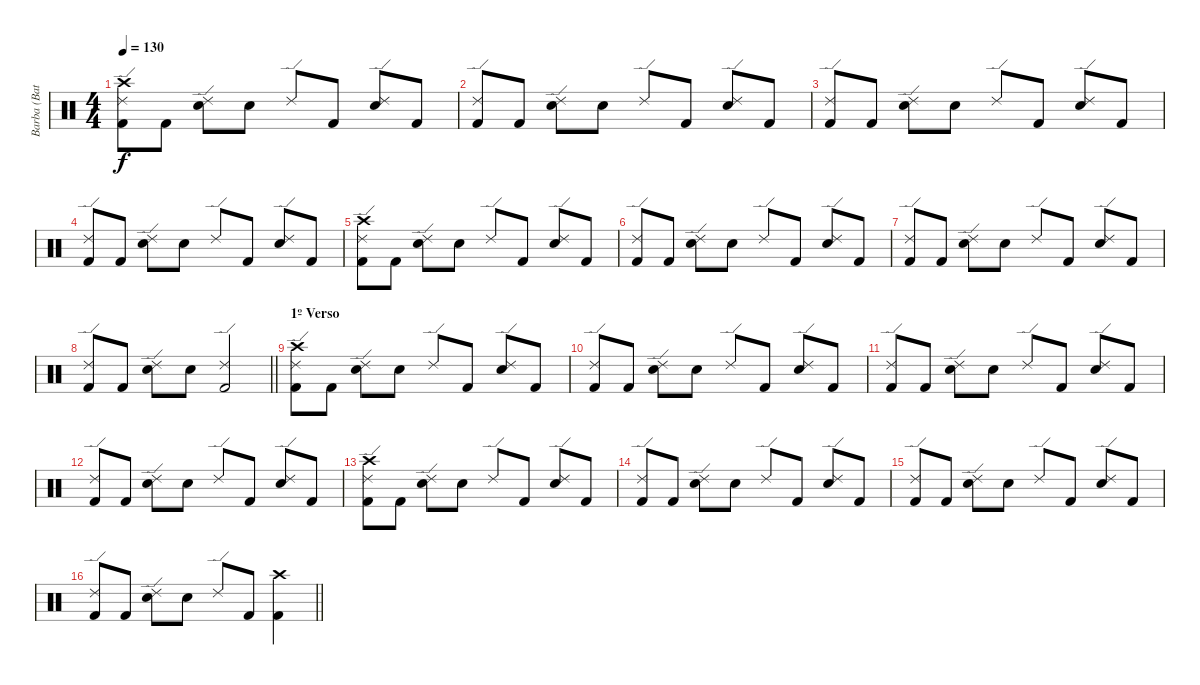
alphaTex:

\track ("Barba (Bateria)" "Barba (Bat") {instrument percussion}
\staff {score}
\articulation defaults
\ts (4 4)
\tempo 130
\clef neutral
\ks c
("Crash high (hit)" "Ride (edge) 2" "Kick (hit) 2").8{dy f} "Kick (hit) 2".8 ("Ride (edge) 2" "Electric Snare (hit)").8 "Electric Snare (hit)".8 "Ride (edge) 2".8 "Kick (hit) 2".8 ("Ride (edge) 2" "Electric Snare (hit)").8 "Kick (hit) 2".8 |
("Ride (edge) 2" "Kick (hit) 2").8 "Kick (hit) 2".8 ("Ride (edge) 2" "Electric Snare (hit)").8 "Electric Snare (hit)".8 "Ride (edge) 2".8 "Kick (hit) 2".8 ("Ride (edge) 2" "Electric Snare (hit)").8 "Kick (hit) 2".8 |
("Ride (edge) 2" "Kick (hit) 2").8 "Kick (hit) 2".8 ("Ride (edge) 2" "Electric Snare (hit)").8 "Electric Snare (hit)".8 "Ride (edge) 2".8 "Kick (hit) 2".8 ("Ride (edge) 2" "Electric Snare (hit)").8 "Kick (hit) 2".8 |
("Ride (edge) 2" "Kick (hit) 2").8 "Kick (hit) 2".8 ("Ride (edge) 2" "Electric Snare (hit)").8 "Electric Snare (hit)".8 "Ride (edge) 2".8 "Kick (hit) 2".8 ("Ride (edge) 2" "Electric Snare (hit)").8 "Kick (hit) 2".8 |
("Crash high (hit)" "Ride (edge) 2" "Kick (hit) 2").8 "Kick (hit) 2".8 ("Ride (edge) 2" "Electric Snare (hit)").8 "Electric Snare (hit)".8 "Ride (edge) 2".8 "Kick (hit) 2".8 ("Ride (edge) 2" "Electric Snare (hit)").8 "Kick (hit) 2".8 |
("Ride (edge) 2" "Kick (hit) 2").8 "Kick (hit) 2".8 ("Ride (edge) 2" "Electric Snare (hit)").8 "Electric Snare (hit)".8 "Ride (edge) 2".8 "Kick (hit) 2".8 ("Ride (edge) 2" "Electric Snare (hit)").8 "Kick (hit) 2".8 |
("Ride (edge) 2" "Kick (hit) 2").8 "Kick (hit) 2".8 ("Ride (edge) 2" "Electric Snare (hit)").8 "Electric Snare (hit)".8 "Ride (edge) 2".8 "Kick (hit) 2".8 ("Ride (edge) 2" "Electric Snare (hit)").8 "Kick (hit) 2".8 |
\barLineRight lightlight
("Ride (edge) 2" "Kick (hit) 2").8 "Kick (hit) 2".8 ("Ride (edge) 2" "Electric Snare (hit)").8 "Electric Snare (hit)".8 ("Ride (edge) 2" "Kick (hit) 2").2 |
\section ("" "1º Verso")
("Crash high (hit)" "Ride (edge) 2" "Kick (hit) 2").8 "Kick (hit) 2".8 ("Ride (edge) 2" "Electric Snare (hit)").8 "Electric Snare (hit)".8 "Ride (edge) 2".8 "Kick (hit) 2".8 ("Ride (edge) 2" "Electric Snare (hit)").8 "Kick (hit) 2".8 |
("Ride (edge) 2" "Kick (hit) 2").8 "Kick (hit) 2".8 ("Ride (edge) 2" "Electric Snare (hit)").8 "Electric Snare (hit)".8 "Ride (edge) 2".8 "Kick (hit) 2".8 ("Ride (edge) 2" "Electric Snare (hit)").8 "Kick (hit) 2".8 |
("Ride (edge) 2" "Kick (hit) 2").8 "Kick (hit) 2".8 ("Ride (edge) 2" "Electric Snare (hit)").8 "Electric Snare (hit)".8 "Ride (edge) 2".8 "Kick (hit) 2".8 ("Ride (edge) 2" "Electric Snare (hit)").8 "Kick (hit) 2".8 |
("Ride (edge) 2" "Kick (hit) 2").8 "Kick (hit) 2".8 ("Ride (edge) 2" "Electric Snare (hit)").8 "Electric Snare (hit)".8 "Ride (edge) 2".8 "Kick (hit) 2".8 ("Ride (edge) 2" "Electric Snare (hit)").8 "Kick (hit) 2".8 |
("Crash high (hit)" "Ride (edge) 2" "Kick (hit) 2").8 "Kick (hit) 2".8 ("Ride (edge) 2" "Electric Snare (hit)").8 "Electric Snare (hit)".8 "Ride (edge) 2".8 "Kick (hit) 2".8 ("Ride (edge) 2" "Electric Snare (hit)").8 "Kick (hit) 2".8 |
("Ride (edge) 2" "Kick (hit) 2").8 "Kick (hit) 2".8 ("Ride (edge) 2" "Electric Snare (hit)").8 "Electric Snare (hit)".8 "Ride (edge) 2".8 "Kick (hit) 2".8 ("Ride (edge) 2" "Electric Snare (hit)").8 "Kick (hit) 2".8 |
("Ride (edge) 2" "Kick (hit) 2").8 "Kick (hit) 2".8 ("Ride (edge) 2" "Electric Snare (hit)").8 "Electric Snare (hit)".8 "Ride (edge) 2".8 "Kick (hit) 2".8 ("Ride (edge) 2" "Electric Snare (hit)").8 "Kick (hit) 2".8 |
\barLineRight lightlight
("Ride (edge) 2" "Kick (hit) 2").8 "Kick (hit) 2".8 ("Ride (edge) 2" "Electric Snare (hit)").8 "Electric Snare (hit)".8 "Ride (edge) 2".8 "Kick (hit) 2".8 ("Crash high (hit)" "Kick (hit) 2").4
